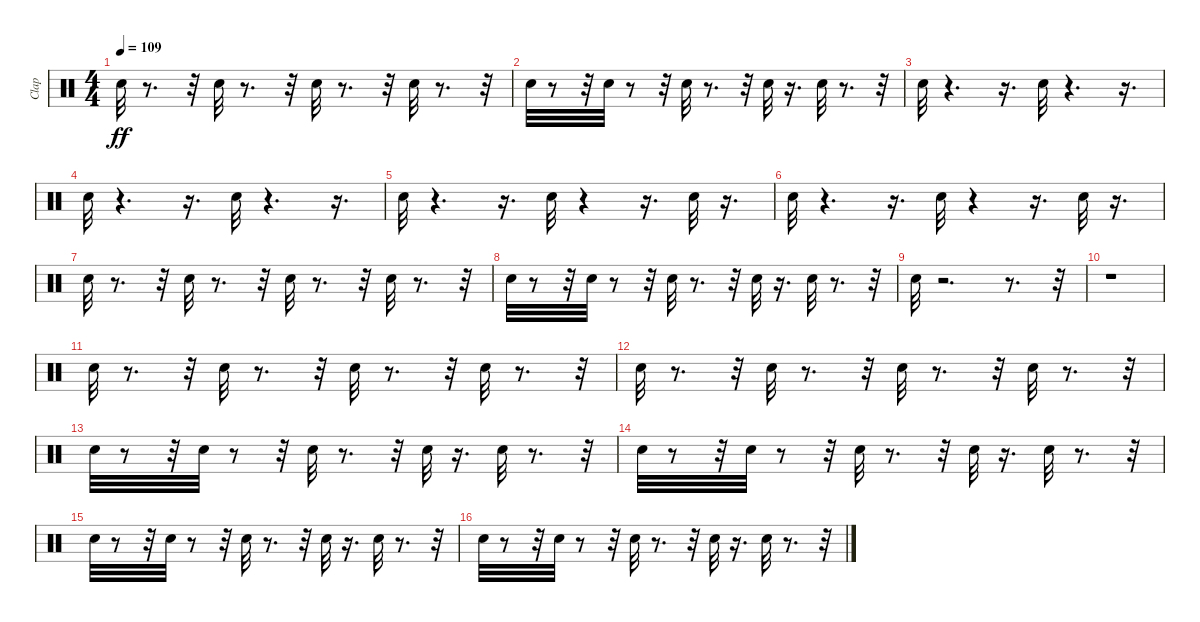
\track ("Clap" "Clap") {instrument percussion}
\staff {score}
\articulation defaults
\ts (4 4)
\tempo 109
\clef neutral
\ks c "Hand Clap (hit)".32{dy ff}
r.8{d} r.32 "Hand Clap (hit)".32 r.8{d} r.32 "Hand Clap (hit)".32 r.8{d} r.32 "Hand Clap (hit)".32 r.8{d} r.32 |
"Hand Clap (hit)".32 r.8 r.32 "Hand Clap (hit)".32 r.8 r.32 "Hand Clap (hit)".32 r.8{d} r.32 "Hand Clap (hit)".32 r.16{d} "Hand Clap (hit)".32 r.8{d} r.32 |
"Hand Clap (hit)".32 r.4{d} r.16{d} "Hand Clap (hit)".32 r.4{d} r.16{d} |
"Hand Clap (hit)".32 r.4{d} r.16{d} "Hand Clap (hit)".32 r.4{d} r.16{d} |
"Hand Clap (hit)".32 r.4{d} r.16{d} "Hand Clap (hit)".32 r.4 r.16{d} "Hand Clap (hit)".32 r.16{d} |
"Hand Clap (hit)".32 r.4{d} r.16{d} "Hand Clap (hit)".32 r.4 r.16{d} "Hand Clap (hit)".32 r.16{d} |
"Hand Clap (hit)".32 r.8{d} r.32 "Hand Clap (hit)".32 r.8{d} r.32 "Hand Clap (hit)".32 r.8{d} r.32 "Hand Clap (hit)".32 r.8{d} r.32 |
"Hand Clap (hit)".32 r.8 r.32 "Hand Clap (hit)".32 r.8 r.32 "Hand Clap (hit)".32 r.8{d} r.32 "Hand Clap (hit)".32 r.16{d} "Hand Clap (hit)".32 r.8{d} r.32 |
"Hand Clap (hit)".32 r.2{d} r.8{d} r.32 |
r.1 |
"Hand Clap (hit)".32 r.8{d} r.32 "Hand Clap (hit)".32 r.8{d} r.32 "Hand Clap (hit)".32 r.8{d} r.32 "Hand Clap (hit)".32 r.8{d} r.32 |
"Hand Clap (hit)".32 r.8{d} r.32 "Hand Clap (hit)".32 r.8{d} r.32 "Hand Clap (hit)".32 r.8{d} r.32 "Hand Clap (hit)".32 r.8{d} r.32 |
"Hand Clap (hit)".32 r.8 r.32 "Hand Clap (hit)".32 r.8 r.32 "Hand Clap (hit)".32 r.8{d} r.32 "Hand Clap (hit)".32 r.16{d} "Hand Clap (hit)".32 r.8{d} r.32 |
"Hand Clap (hit)".32 r.8 r.32 "Hand Clap (hit)".32 r.8 r.32 "Hand Clap (hit)".32 r.8{d} r.32 "Hand Clap (hit)".32 r.16{d} "Hand Clap (hit)".32 r.8{d} r.32 |
"Hand Clap (hit)".32 r.8 r.32 "Hand Clap (hit)".32 r.8 r.32 "Hand Clap (hit)".32 r.8{d} r.32 "Hand Clap (hit)".32 r.16{d} "Hand Clap (hit)".32 r.8{d} r.32 |
"Hand Clap (hit)".32 r.8 r.32 "Hand Clap (hit)".32 r.8 r.32 "Hand Clap (hit)".32 r.8{d} r.32 "Hand Clap (hit)".32 r.16{d} "Hand Clap (hit)".32 r.8{d} r.32
